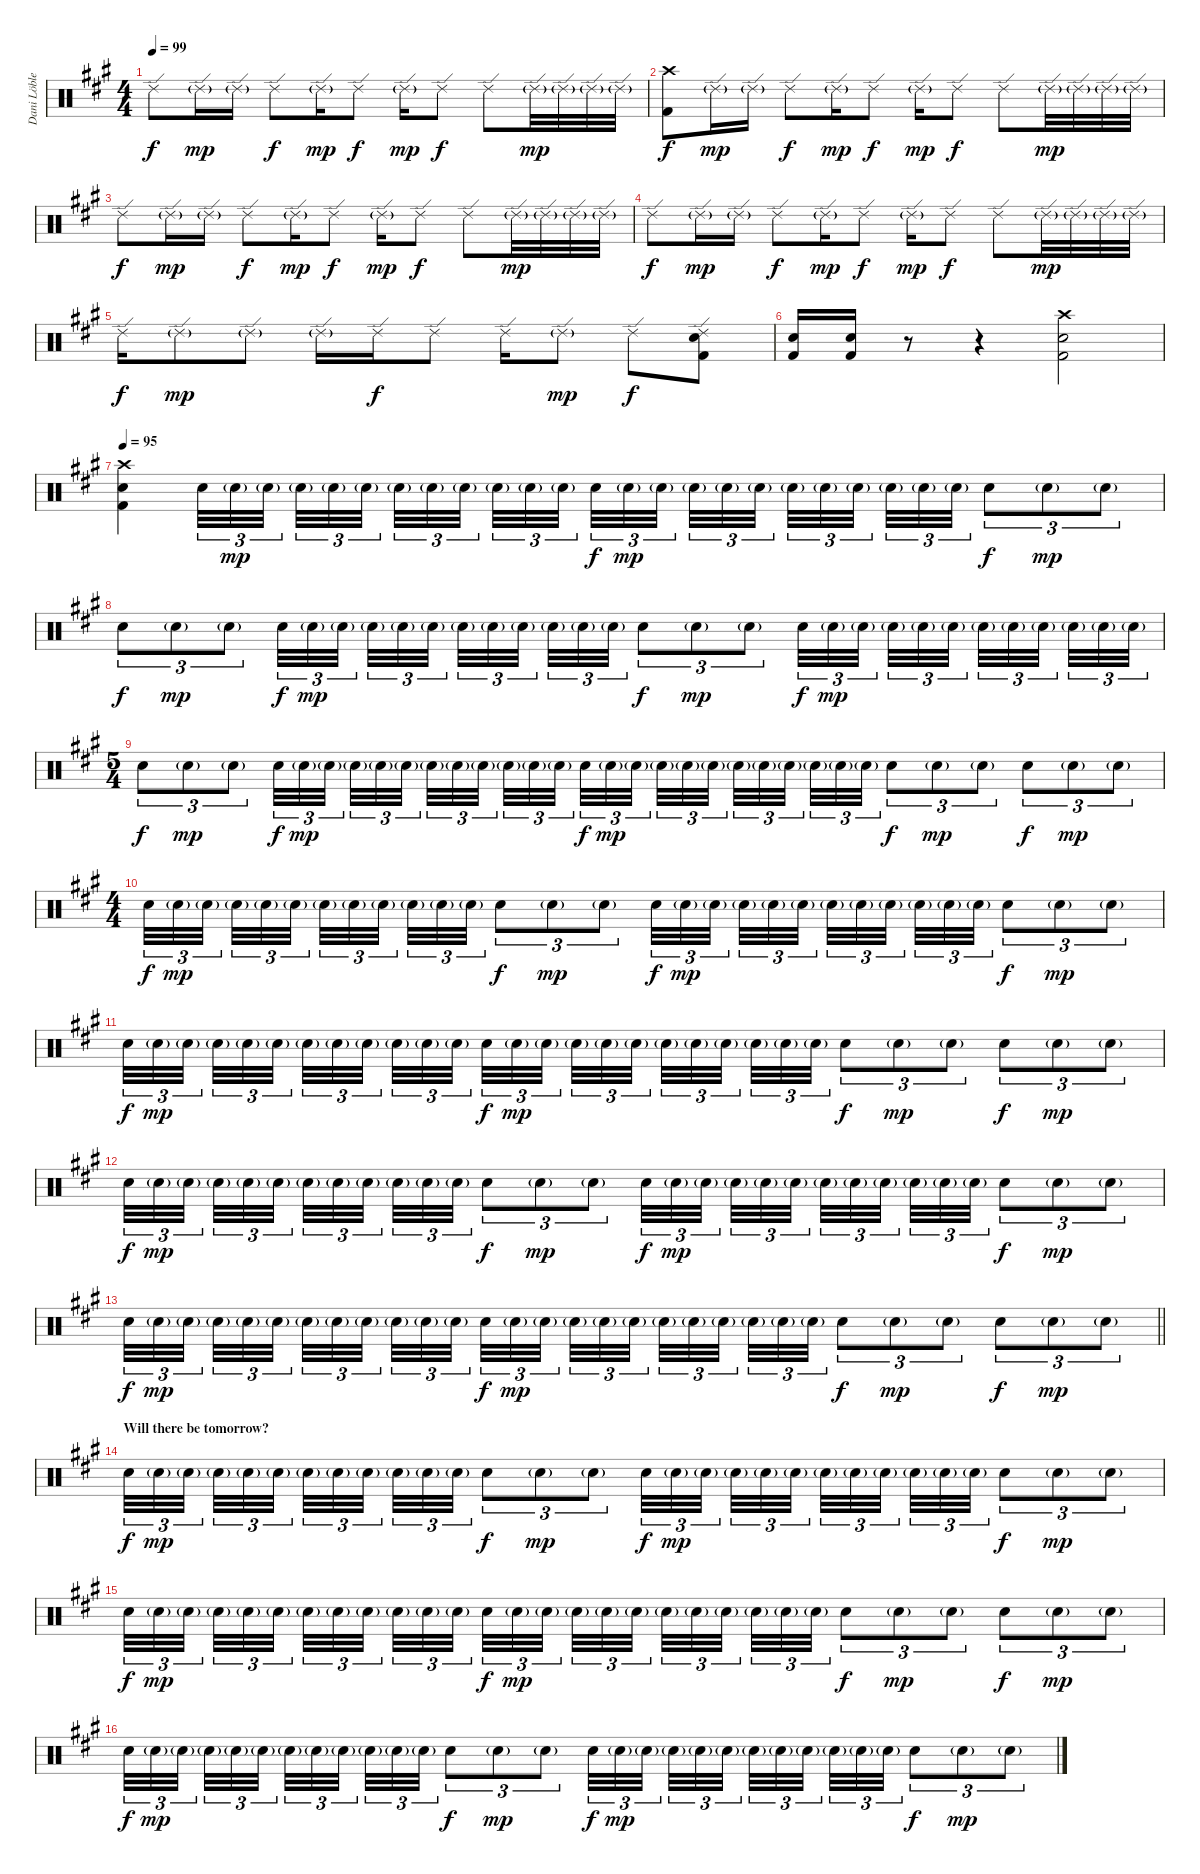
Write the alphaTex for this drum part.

\track ("Dani Löble" "Dani Löble") {instrument percussion}
\staff {score}
\articulation defaults
\ts (4 4)
\tempo 99
\clef neutral
\ks f#minor "Ride (edge) 2".8{dy f} "Ride (edge) 2"{g}.16{dy mp} "Ride (edge) 2"{g}.16 "Ride (edge) 2".8{dy f} "Ride (edge) 2"{g}.16{dy mp} "Ride (edge) 2".8{dy f} "Ride (edge) 2"{g}.16{dy mp} "Ride (edge) 2".8{dy f} "Ride (edge) 2".8 "Ride (edge) 2"{g}.32{dy mp} "Ride (edge) 2"{g}.32 "Ride (edge) 2"{g}.32 "Ride (edge) 2"{g}.32
|
("Crash high (hit)" "Kick (hit) 2").8{dy f} "Ride (edge) 2"{g}.16{dy mp} "Ride (edge) 2"{g}.16 "Ride (edge) 2".8{dy f} "Ride (edge) 2"{g}.16{dy mp} "Ride (edge) 2".8{dy f} "Ride (edge) 2"{g}.16{dy mp} "Ride (edge) 2".8{dy f} "Ride (edge) 2".8 "Ride (edge) 2"{g}.32{dy mp} "Ride (edge) 2"{g}.32 "Ride (edge) 2"{g}.32 "Ride (edge) 2"{g}.32 |
"Ride (edge) 2".8{dy f} "Ride (edge) 2"{g}.16{dy mp} "Ride (edge) 2"{g}.16 "Ride (edge) 2".8{dy f} "Ride (edge) 2"{g}.16{dy mp} "Ride (edge) 2".8{dy f} "Ride (edge) 2"{g}.16{dy mp} "Ride (edge) 2".8{dy f} "Ride (edge) 2".8 "Ride (edge) 2"{g}.32{dy mp} "Ride (edge) 2"{g}.32 "Ride (edge) 2"{g}.32 "Ride (edge) 2"{g}.32 |
"Ride (edge) 2".8{dy f} "Ride (edge) 2"{g}.16{dy mp} "Ride (edge) 2"{g}.16 "Ride (edge) 2".8{dy f} "Ride (edge) 2"{g}.16{dy mp} "Ride (edge) 2".8{dy f} "Ride (edge) 2"{g}.16{dy mp} "Ride (edge) 2".8{dy f} "Ride (edge) 2".8 "Ride (edge) 2"{g}.32{dy mp} "Ride (edge) 2"{g}.32 "Ride (edge) 2"{g}.32 "Ride (edge) 2"{g}.32 |
"Ride (edge) 2".16{dy f} "Ride (edge) 2"{g}.8{dy mp} "Ride (edge) 2"{g}.8 "Ride (edge) 2"{g}.16 "Ride (edge) 2".16{dy f} "Ride (edge) 2".8 "Ride (edge) 2".16 "Ride (edge) 2"{g}.8{dy mp} "Ride (edge) 2".8{dy f} ("Ride (edge) 2" "Snare (hit) 2" "Kick (hit) 2").8 |
("Snare (hit) 2" "Kick (hit) 2").16 ("Snare (hit) 2" "Kick (hit) 2").16 r.8 r.4 ("Crash high (hit)" "Snare (hit) 2" "Kick (hit) 2").2 |
\tempo 95
("Crash high (hit)" "Snare (hit) 2" "Kick (hit) 2").4 "Electric Snare (hit)".32{tu (3 2) volume 7} "Electric Snare (hit)"{g}.32{tu (3 2) dy mp} "Electric Snare (hit)"{g}.32{tu (3 2) beam splitsecondary} "Electric Snare (hit)"{g}.32{tu (3 2)} "Electric Snare (hit)"{g}.32{tu (3 2)} "Electric Snare (hit)"{g}.32{tu (3 2) beam splitsecondary} "Electric Snare (hit)"{g}.32{tu (3 2)} "Electric Snare (hit)"{g}.32{tu (3 2)} "Electric Snare (hit)"{g}.32{tu (3 2) beam splitsecondary} "Electric Snare (hit)"{g}.32{tu (3 2)} "Electric Snare (hit)"{g}.32{tu (3 2)} "Electric Snare (hit)"{g}.32{tu (3 2)} "Electric Snare (hit)".32{tu (3 2) dy f} "Electric Snare (hit)"{g}.32{tu (3 2) dy mp} "Electric Snare (hit)"{g}.32{tu (3 2) beam splitsecondary} "Electric Snare (hit)"{g}.32{tu (3 2)} "Electric Snare (hit)"{g}.32{tu (3 2)} "Electric Snare (hit)"{g}.32{tu (3 2) beam splitsecondary} "Electric Snare (hit)"{g}.32{tu (3 2)} "Electric Snare (hit)"{g}.32{tu (3 2)} "Electric Snare (hit)"{g}.32{tu (3 2) beam splitsecondary} "Electric Snare (hit)"{g}.32{tu (3 2)} "Electric Snare (hit)"{g}.32{tu (3 2)} "Electric Snare (hit)"{g}.32{tu (3 2)} "Electric Snare (hit)".8{tu (3 2) dy f} "Electric Snare (hit)"{g}.8{tu (3 2) dy mp} "Electric Snare (hit)"{g}.8{tu (3 2)} |
"Electric Snare (hit)".8{tu (3 2) dy f volume 10} "Electric Snare (hit)"{g}.8{tu (3 2) dy mp} "Electric Snare (hit)"{g}.8{tu (3 2)} "Electric Snare (hit)".32{tu (3 2) dy f} "Electric Snare (hit)"{g}.32{tu (3 2) dy mp} "Electric Snare (hit)"{g}.32{tu (3 2) beam splitsecondary} "Electric Snare (hit)"{g}.32{tu (3 2)} "Electric Snare (hit)"{g}.32{tu (3 2)} "Electric Snare (hit)"{g}.32{tu (3 2) beam splitsecondary} "Electric Snare (hit)"{g}.32{tu (3 2)} "Electric Snare (hit)"{g}.32{tu (3 2)} "Electric Snare (hit)"{g}.32{tu (3 2) beam splitsecondary} "Electric Snare (hit)"{g}.32{tu (3 2)} "Electric Snare (hit)"{g}.32{tu (3 2)} "Electric Snare (hit)"{g}.32{tu (3 2)} "Electric Snare (hit)".8{tu (3 2) dy f} "Electric Snare (hit)"{g}.8{tu (3 2) dy mp} "Electric Snare (hit)"{g}.8{tu (3 2)} "Electric Snare (hit)".32{tu (3 2) dy f} "Electric Snare (hit)"{g}.32{tu (3 2) dy mp} "Electric Snare (hit)"{g}.32{tu (3 2) beam splitsecondary} "Electric Snare (hit)"{g}.32{tu (3 2)} "Electric Snare (hit)"{g}.32{tu (3 2)} "Electric Snare (hit)"{g}.32{tu (3 2) beam splitsecondary} "Electric Snare (hit)"{g}.32{tu (3 2)} "Electric Snare (hit)"{g}.32{tu (3 2)} "Electric Snare (hit)"{g}.32{tu (3 2) beam splitsecondary} "Electric Snare (hit)"{g}.32{tu (3 2)} "Electric Snare (hit)"{g}.32{tu (3 2)} "Electric Snare (hit)"{g}.32{tu (3 2)} |
\ts (5 4)
"Electric Snare (hit)".8{tu (3 2) dy f} "Electric Snare (hit)"{g}.8{tu (3 2) dy mp} "Electric Snare (hit)"{g}.8{tu (3 2)} "Electric Snare (hit)".32{tu (3 2) dy f} "Electric Snare (hit)"{g}.32{tu (3 2) dy mp} "Electric Snare (hit)"{g}.32{tu (3 2) beam splitsecondary} "Electric Snare (hit)"{g}.32{tu (3 2)} "Electric Snare (hit)"{g}.32{tu (3 2)} "Electric Snare (hit)"{g}.32{tu (3 2) beam splitsecondary} "Electric Snare (hit)"{g}.32{tu (3 2)} "Electric Snare (hit)"{g}.32{tu (3 2)} "Electric Snare (hit)"{g}.32{tu (3 2) beam splitsecondary} "Electric Snare (hit)"{g}.32{tu (3 2)} "Electric Snare (hit)"{g}.32{tu (3 2)} "Electric Snare (hit)"{g}.32{tu (3 2)} "Electric Snare (hit)".32{tu (3 2) dy f} "Electric Snare (hit)"{g}.32{tu (3 2) dy mp} "Electric Snare (hit)"{g}.32{tu (3 2) beam splitsecondary} "Electric Snare (hit)"{g}.32{tu (3 2)} "Electric Snare (hit)"{g}.32{tu (3 2)} "Electric Snare (hit)"{g}.32{tu (3 2) beam splitsecondary} "Electric Snare (hit)"{g}.32{tu (3 2)} "Electric Snare (hit)"{g}.32{tu (3 2)} "Electric Snare (hit)"{g}.32{tu (3 2) beam splitsecondary} "Electric Snare (hit)"{g}.32{tu (3 2)} "Electric Snare (hit)"{g}.32{tu (3 2)} "Electric Snare (hit)"{g}.32{tu (3 2)} "Electric Snare (hit)".8{tu (3 2) dy f} "Electric Snare (hit)"{g}.8{tu (3 2) dy mp} "Electric Snare (hit)"{g}.8{tu (3 2)} "Electric Snare (hit)".8{tu (3 2) dy f} "Electric Snare (hit)"{g}.8{tu (3 2) dy mp} "Electric Snare (hit)"{g}.8{tu (3 2)} |
\ts (4 4)
"Electric Snare (hit)".32{tu (3 2) dy f} "Electric Snare (hit)"{g}.32{tu (3 2) dy mp} "Electric Snare (hit)"{g}.32{tu (3 2) beam splitsecondary} "Electric Snare (hit)"{g}.32{tu (3 2)} "Electric Snare (hit)"{g}.32{tu (3 2)} "Electric Snare (hit)"{g}.32{tu (3 2) beam splitsecondary} "Electric Snare (hit)"{g}.32{tu (3 2)} "Electric Snare (hit)"{g}.32{tu (3 2)} "Electric Snare (hit)"{g}.32{tu (3 2) beam splitsecondary} "Electric Snare (hit)"{g}.32{tu (3 2)} "Electric Snare (hit)"{g}.32{tu (3 2)} "Electric Snare (hit)"{g}.32{tu (3 2)} "Electric Snare (hit)".8{tu (3 2) dy f} "Electric Snare (hit)"{g}.8{tu (3 2) dy mp} "Electric Snare (hit)"{g}.8{tu (3 2)} "Electric Snare (hit)".32{tu (3 2) dy f} "Electric Snare (hit)"{g}.32{tu (3 2) dy mp} "Electric Snare (hit)"{g}.32{tu (3 2) beam splitsecondary} "Electric Snare (hit)"{g}.32{tu (3 2)} "Electric Snare (hit)"{g}.32{tu (3 2)} "Electric Snare (hit)"{g}.32{tu (3 2) beam splitsecondary} "Electric Snare (hit)"{g}.32{tu (3 2)} "Electric Snare (hit)"{g}.32{tu (3 2)} "Electric Snare (hit)"{g}.32{tu (3 2) beam splitsecondary} "Electric Snare (hit)"{g}.32{tu (3 2)} "Electric Snare (hit)"{g}.32{tu (3 2)} "Electric Snare (hit)"{g}.32{tu (3 2)} "Electric Snare (hit)".8{tu (3 2) dy f} "Electric Snare (hit)"{g}.8{tu (3 2) dy mp} "Electric Snare (hit)"{g}.8{tu (3 2)} |
"Electric Snare (hit)".32{tu (3 2) dy f} "Electric Snare (hit)"{g}.32{tu (3 2) dy mp} "Electric Snare (hit)"{g}.32{tu (3 2) beam splitsecondary} "Electric Snare (hit)"{g}.32{tu (3 2)} "Electric Snare (hit)"{g}.32{tu (3 2)} "Electric Snare (hit)"{g}.32{tu (3 2) beam splitsecondary} "Electric Snare (hit)"{g}.32{tu (3 2)} "Electric Snare (hit)"{g}.32{tu (3 2)} "Electric Snare (hit)"{g}.32{tu (3 2) beam splitsecondary} "Electric Snare (hit)"{g}.32{tu (3 2)} "Electric Snare (hit)"{g}.32{tu (3 2)} "Electric Snare (hit)"{g}.32{tu (3 2)} "Electric Snare (hit)".32{tu (3 2) dy f} "Electric Snare (hit)"{g}.32{tu (3 2) dy mp} "Electric Snare (hit)"{g}.32{tu (3 2) beam splitsecondary} "Electric Snare (hit)"{g}.32{tu (3 2)} "Electric Snare (hit)"{g}.32{tu (3 2)} "Electric Snare (hit)"{g}.32{tu (3 2) beam splitsecondary} "Electric Snare (hit)"{g}.32{tu (3 2)} "Electric Snare (hit)"{g}.32{tu (3 2)} "Electric Snare (hit)"{g}.32{tu (3 2) beam splitsecondary} "Electric Snare (hit)"{g}.32{tu (3 2)} "Electric Snare (hit)"{g}.32{tu (3 2)} "Electric Snare (hit)"{g}.32{tu (3 2)} "Electric Snare (hit)".8{tu (3 2) dy f} "Electric Snare (hit)"{g}.8{tu (3 2) dy mp} "Electric Snare (hit)"{g}.8{tu (3 2)} "Electric Snare (hit)".8{tu (3 2) dy f} "Electric Snare (hit)"{g}.8{tu (3 2) dy mp} "Electric Snare (hit)"{g}.8{tu (3 2)} |
"Electric Snare (hit)".32{tu (3 2) dy f} "Electric Snare (hit)"{g}.32{tu (3 2) dy mp} "Electric Snare (hit)"{g}.32{tu (3 2) beam splitsecondary} "Electric Snare (hit)"{g}.32{tu (3 2)} "Electric Snare (hit)"{g}.32{tu (3 2)} "Electric Snare (hit)"{g}.32{tu (3 2) beam splitsecondary} "Electric Snare (hit)"{g}.32{tu (3 2)} "Electric Snare (hit)"{g}.32{tu (3 2)} "Electric Snare (hit)"{g}.32{tu (3 2) beam splitsecondary} "Electric Snare (hit)"{g}.32{tu (3 2)} "Electric Snare (hit)"{g}.32{tu (3 2)} "Electric Snare (hit)"{g}.32{tu (3 2)} "Electric Snare (hit)".8{tu (3 2) dy f} "Electric Snare (hit)"{g}.8{tu (3 2) dy mp} "Electric Snare (hit)"{g}.8{tu (3 2)} "Electric Snare (hit)".32{tu (3 2) dy f} "Electric Snare (hit)"{g}.32{tu (3 2) dy mp} "Electric Snare (hit)"{g}.32{tu (3 2) beam splitsecondary} "Electric Snare (hit)"{g}.32{tu (3 2)} "Electric Snare (hit)"{g}.32{tu (3 2)} "Electric Snare (hit)"{g}.32{tu (3 2) beam splitsecondary} "Electric Snare (hit)"{g}.32{tu (3 2)} "Electric Snare (hit)"{g}.32{tu (3 2)} "Electric Snare (hit)"{g}.32{tu (3 2) beam splitsecondary} "Electric Snare (hit)"{g}.32{tu (3 2)} "Electric Snare (hit)"{g}.32{tu (3 2)} "Electric Snare (hit)"{g}.32{tu (3 2)} "Electric Snare (hit)".8{tu (3 2) dy f} "Electric Snare (hit)"{g}.8{tu (3 2) dy mp} "Electric Snare (hit)"{g}.8{tu (3 2)} |
\barLineRight lightlight "Electric Snare (hit)".32{tu (3 2) dy f} "Electric Snare (hit)"{g}.32{tu (3 2) dy mp} "Electric Snare (hit)"{g}.32{tu (3 2) beam splitsecondary} "Electric Snare (hit)"{g}.32{tu (3 2)} "Electric Snare (hit)"{g}.32{tu (3 2)} "Electric Snare (hit)"{g}.32{tu (3 2) beam splitsecondary} "Electric Snare (hit)"{g}.32{tu (3 2)} "Electric Snare (hit)"{g}.32{tu (3 2)} "Electric Snare (hit)"{g}.32{tu (3 2) beam splitsecondary} "Electric Snare (hit)"{g}.32{tu (3 2)} "Electric Snare (hit)"{g}.32{tu (3 2)} "Electric Snare (hit)"{g}.32{tu (3 2)} "Electric Snare (hit)".32{tu (3 2) dy f} "Electric Snare (hit)"{g}.32{tu (3 2) dy mp} "Electric Snare (hit)"{g}.32{tu (3 2) beam splitsecondary} "Electric Snare (hit)"{g}.32{tu (3 2)} "Electric Snare (hit)"{g}.32{tu (3 2)} "Electric Snare (hit)"{g}.32{tu (3 2) beam splitsecondary} "Electric Snare (hit)"{g}.32{tu (3 2)} "Electric Snare (hit)"{g}.32{tu (3 2)} "Electric Snare (hit)"{g}.32{tu (3 2) beam splitsecondary} "Electric Snare (hit)"{g}.32{tu (3 2)} "Electric Snare (hit)"{g}.32{tu (3 2)} "Electric Snare (hit)"{g}.32{tu (3 2)} "Electric Snare (hit)".8{tu (3 2) dy f} "Electric Snare (hit)"{g}.8{tu (3 2) dy mp} "Electric Snare (hit)"{g}.8{tu (3 2)} "Electric Snare (hit)".8{tu (3 2) dy f} "Electric Snare (hit)"{g}.8{tu (3 2) dy mp} "Electric Snare (hit)"{g}.8{tu (3 2)}
|
\section ("" "Will there be tomorrow?")
"Electric Snare (hit)".32{tu (3 2) dy f} "Electric Snare (hit)"{g}.32{tu (3 2) dy mp} "Electric Snare (hit)"{g}.32{tu (3 2) beam splitsecondary} "Electric Snare (hit)"{g}.32{tu (3 2)} "Electric Snare (hit)"{g}.32{tu (3 2)} "Electric Snare (hit)"{g}.32{tu (3 2) beam splitsecondary} "Electric Snare (hit)"{g}.32{tu (3 2)} "Electric Snare (hit)"{g}.32{tu (3 2)} "Electric Snare (hit)"{g}.32{tu (3 2) beam splitsecondary} "Electric Snare (hit)"{g}.32{tu (3 2)} "Electric Snare (hit)"{g}.32{tu (3 2)} "Electric Snare (hit)"{g}.32{tu (3 2)} "Electric Snare (hit)".8{tu (3 2) dy f} "Electric Snare (hit)"{g}.8{tu (3 2) dy mp} "Electric Snare (hit)"{g}.8{tu (3 2)} "Electric Snare (hit)".32{tu (3 2) dy f} "Electric Snare (hit)"{g}.32{tu (3 2) dy mp} "Electric Snare (hit)"{g}.32{tu (3 2) beam splitsecondary} "Electric Snare (hit)"{g}.32{tu (3 2)} "Electric Snare (hit)"{g}.32{tu (3 2)} "Electric Snare (hit)"{g}.32{tu (3 2) beam splitsecondary} "Electric Snare (hit)"{g}.32{tu (3 2)} "Electric Snare (hit)"{g}.32{tu (3 2)} "Electric Snare (hit)"{g}.32{tu (3 2) beam splitsecondary} "Electric Snare (hit)"{g}.32{tu (3 2)} "Electric Snare (hit)"{g}.32{tu (3 2)} "Electric Snare (hit)"{g}.32{tu (3 2)} "Electric Snare (hit)".8{tu (3 2) dy f} "Electric Snare (hit)"{g}.8{tu (3 2) dy mp} "Electric Snare (hit)"{g}.8{tu (3 2)} |
"Electric Snare (hit)".32{tu (3 2) dy f} "Electric Snare (hit)"{g}.32{tu (3 2) dy mp} "Electric Snare (hit)"{g}.32{tu (3 2) beam splitsecondary} "Electric Snare (hit)"{g}.32{tu (3 2)} "Electric Snare (hit)"{g}.32{tu (3 2)} "Electric Snare (hit)"{g}.32{tu (3 2) beam splitsecondary} "Electric Snare (hit)"{g}.32{tu (3 2)} "Electric Snare (hit)"{g}.32{tu (3 2)} "Electric Snare (hit)"{g}.32{tu (3 2) beam splitsecondary} "Electric Snare (hit)"{g}.32{tu (3 2)} "Electric Snare (hit)"{g}.32{tu (3 2)} "Electric Snare (hit)"{g}.32{tu (3 2)} "Electric Snare (hit)".32{tu (3 2) dy f} "Electric Snare (hit)"{g}.32{tu (3 2) dy mp} "Electric Snare (hit)"{g}.32{tu (3 2) beam splitsecondary} "Electric Snare (hit)"{g}.32{tu (3 2)} "Electric Snare (hit)"{g}.32{tu (3 2)} "Electric Snare (hit)"{g}.32{tu (3 2) beam splitsecondary} "Electric Snare (hit)"{g}.32{tu (3 2)} "Electric Snare (hit)"{g}.32{tu (3 2)} "Electric Snare (hit)"{g}.32{tu (3 2) beam splitsecondary} "Electric Snare (hit)"{g}.32{tu (3 2)} "Electric Snare (hit)"{g}.32{tu (3 2)} "Electric Snare (hit)"{g}.32{tu (3 2)} "Electric Snare (hit)".8{tu (3 2) dy f} "Electric Snare (hit)"{g}.8{tu (3 2) dy mp} "Electric Snare (hit)"{g}.8{tu (3 2)} "Electric Snare (hit)".8{tu (3 2) dy f} "Electric Snare (hit)"{g}.8{tu (3 2) dy mp} "Electric Snare (hit)"{g}.8{tu (3 2)} |
"Electric Snare (hit)".32{tu (3 2) dy f} "Electric Snare (hit)"{g}.32{tu (3 2) dy mp} "Electric Snare (hit)"{g}.32{tu (3 2) beam splitsecondary} "Electric Snare (hit)"{g}.32{tu (3 2)} "Electric Snare (hit)"{g}.32{tu (3 2)} "Electric Snare (hit)"{g}.32{tu (3 2) beam splitsecondary} "Electric Snare (hit)"{g}.32{tu (3 2)} "Electric Snare (hit)"{g}.32{tu (3 2)} "Electric Snare (hit)"{g}.32{tu (3 2) beam splitsecondary} "Electric Snare (hit)"{g}.32{tu (3 2)} "Electric Snare (hit)"{g}.32{tu (3 2)} "Electric Snare (hit)"{g}.32{tu (3 2)} "Electric Snare (hit)".8{tu (3 2) dy f} "Electric Snare (hit)"{g}.8{tu (3 2) dy mp} "Electric Snare (hit)"{g}.8{tu (3 2)} "Electric Snare (hit)".32{tu (3 2) dy f} "Electric Snare (hit)"{g}.32{tu (3 2) dy mp} "Electric Snare (hit)"{g}.32{tu (3 2) beam splitsecondary} "Electric Snare (hit)"{g}.32{tu (3 2)} "Electric Snare (hit)"{g}.32{tu (3 2)} "Electric Snare (hit)"{g}.32{tu (3 2) beam splitsecondary} "Electric Snare (hit)"{g}.32{tu (3 2)} "Electric Snare (hit)"{g}.32{tu (3 2)} "Electric Snare (hit)"{g}.32{tu (3 2) beam splitsecondary} "Electric Snare (hit)"{g}.32{tu (3 2)} "Electric Snare (hit)"{g}.32{tu (3 2)} "Electric Snare (hit)"{g}.32{tu (3 2)} "Electric Snare (hit)".8{tu (3 2) dy f} "Electric Snare (hit)"{g}.8{tu (3 2) dy mp} "Electric Snare (hit)"{g}.8{tu (3 2)}
